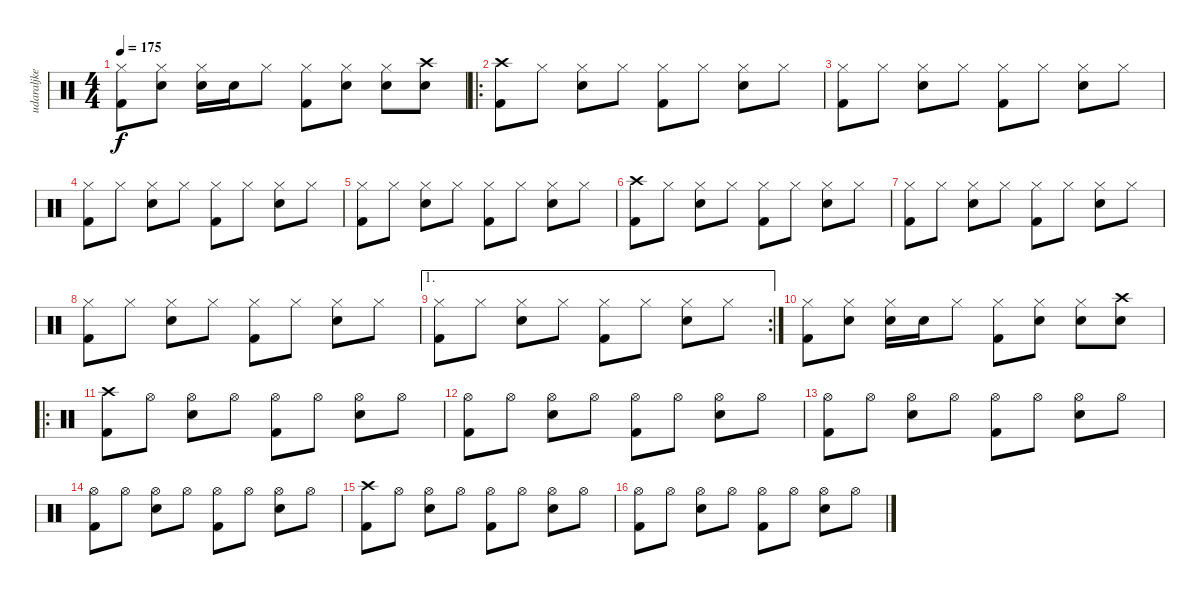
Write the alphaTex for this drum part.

\track ("udaraljke" "udaraljke") {instrument percussion}
\staff {score}
\articulation defaults
\ts (4 4)
\tempo 175
\clef neutral
\ks c
("Hi-Hat (closed)" "Kick (hit) 2").8{dy f} ("Hi-Hat (closed)" "Snare (hit) 2").8 ("Hi-Hat (closed)" "Snare (hit) 2").16 "Snare (hit) 2".16 "Hi-Hat (closed)".8 ("Hi-Hat (closed)" "Kick (hit) 2").8 ("Hi-Hat (closed)" "Snare (hit) 2").8 ("Hi-Hat (closed)" "Snare (hit) 2").8 ("Crash high (hit)" "Snare (hit) 2").8 |
\ro
("Crash high (hit)" "Kick (hit) 2").8 "Hi-Hat (closed)".8 ("Hi-Hat (closed)" "Snare (hit) 2").8 "Hi-Hat (closed)".8 ("Hi-Hat (closed)" "Kick (hit) 2").8 "Hi-Hat (closed)".8 ("Hi-Hat (closed)" "Snare (hit) 2").8 "Hi-Hat (closed)".8 |
("Hi-Hat (closed)" "Kick (hit) 2").8 "Hi-Hat (closed)".8 ("Hi-Hat (closed)" "Snare (hit) 2").8 "Hi-Hat (closed)".8 ("Hi-Hat (closed)" "Kick (hit) 2").8 "Hi-Hat (closed)".8 ("Hi-Hat (closed)" "Snare (hit) 2").8 "Hi-Hat (closed)".8 |
("Hi-Hat (closed)" "Kick (hit) 2").8 "Hi-Hat (closed)".8 ("Hi-Hat (closed)" "Snare (hit) 2").8 "Hi-Hat (closed)".8 ("Hi-Hat (closed)" "Kick (hit) 2").8 "Hi-Hat (closed)".8 ("Hi-Hat (closed)" "Snare (hit) 2").8 "Hi-Hat (closed)".8 |
("Hi-Hat (closed)" "Kick (hit) 2").8 "Hi-Hat (closed)".8 ("Hi-Hat (closed)" "Snare (hit) 2").8 "Hi-Hat (closed)".8 ("Hi-Hat (closed)" "Kick (hit) 2").8 "Hi-Hat (closed)".8 ("Hi-Hat (closed)" "Snare (hit) 2").8 "Hi-Hat (closed)".8 |
("Crash high (hit)" "Kick (hit) 2").8 "Hi-Hat (closed)".8 ("Hi-Hat (closed)" "Snare (hit) 2").8 "Hi-Hat (closed)".8 ("Hi-Hat (closed)" "Kick (hit) 2").8 "Hi-Hat (closed)".8 ("Hi-Hat (closed)" "Snare (hit) 2").8 "Hi-Hat (closed)".8 |
("Hi-Hat (closed)" "Kick (hit) 2").8 "Hi-Hat (closed)".8 ("Hi-Hat (closed)" "Snare (hit) 2").8 "Hi-Hat (closed)".8 ("Hi-Hat (closed)" "Kick (hit) 2").8 "Hi-Hat (closed)".8 ("Hi-Hat (closed)" "Snare (hit) 2").8 "Hi-Hat (closed)".8 |
("Hi-Hat (closed)" "Kick (hit) 2").8 "Hi-Hat (closed)".8 ("Hi-Hat (closed)" "Snare (hit) 2").8 "Hi-Hat (closed)".8 ("Hi-Hat (closed)" "Kick (hit) 2").8 "Hi-Hat (closed)".8 ("Hi-Hat (closed)" "Snare (hit) 2").8 "Hi-Hat (closed)".8 |
\ae 1
\rc 2
("Hi-Hat (closed)" "Kick (hit) 2").8 "Hi-Hat (closed)".8 ("Hi-Hat (closed)" "Snare (hit) 2").8 "Hi-Hat (closed)".8 ("Hi-Hat (closed)" "Kick (hit) 2").8 "Hi-Hat (closed)".8 ("Hi-Hat (closed)" "Snare (hit) 2").8 "Hi-Hat (closed)".8 |
("Hi-Hat (closed)" "Kick (hit) 2").8 ("Hi-Hat (closed)" "Snare (hit) 2").8 ("Hi-Hat (closed)" "Snare (hit) 2").16 "Snare (hit) 2".16 "Hi-Hat (closed)".8 ("Hi-Hat (closed)" "Kick (hit) 2").8 ("Hi-Hat (closed)" "Snare (hit) 2").8 ("Hi-Hat (closed)" "Snare (hit) 2").8 ("Crash high (hit)" "Snare (hit) 2").8 |
\ro
("Crash high (hit)" "Kick (hit) 2").8 "Hi-Hat (open)".8 ("Hi-Hat (open)" "Snare (hit) 2").8 "Hi-Hat (open)".8 ("Hi-Hat (open)" "Kick (hit) 2").8 "Hi-Hat (open)".8 ("Hi-Hat (open)" "Snare (hit) 2").8 "Hi-Hat (open)".8 |
("Hi-Hat (open)" "Kick (hit) 2").8 "Hi-Hat (open)".8 ("Hi-Hat (open)" "Snare (hit) 2").8 "Hi-Hat (open)".8 ("Hi-Hat (open)" "Kick (hit) 2").8 "Hi-Hat (open)".8 ("Hi-Hat (open)" "Snare (hit) 2").8 "Hi-Hat (open)".8 |
("Hi-Hat (open)" "Kick (hit) 2").8 "Hi-Hat (open)".8 ("Hi-Hat (open)" "Snare (hit) 2").8 "Hi-Hat (open)".8 ("Hi-Hat (open)" "Kick (hit) 2").8 "Hi-Hat (open)".8 ("Hi-Hat (open)" "Snare (hit) 2").8 "Hi-Hat (open)".8 |
("Hi-Hat (open)" "Kick (hit) 2").8 "Hi-Hat (open)".8 ("Hi-Hat (open)" "Snare (hit) 2").8 "Hi-Hat (open)".8 ("Hi-Hat (open)" "Kick (hit) 2").8 "Hi-Hat (open)".8 ("Hi-Hat (open)" "Snare (hit) 2").8 "Hi-Hat (open)".8 |
("Crash high (hit)" "Kick (hit) 2").8 "Hi-Hat (open)".8 ("Hi-Hat (open)" "Snare (hit) 2").8 "Hi-Hat (open)".8 ("Hi-Hat (open)" "Kick (hit) 2").8 "Hi-Hat (open)".8 ("Hi-Hat (open)" "Snare (hit) 2").8 "Hi-Hat (open)".8 |
("Hi-Hat (open)" "Kick (hit) 2").8 "Hi-Hat (open)".8 ("Hi-Hat (open)" "Snare (hit) 2").8 "Hi-Hat (open)".8 ("Hi-Hat (open)" "Kick (hit) 2").8 "Hi-Hat (open)".8 ("Hi-Hat (open)" "Snare (hit) 2").8 "Hi-Hat (open)".8
